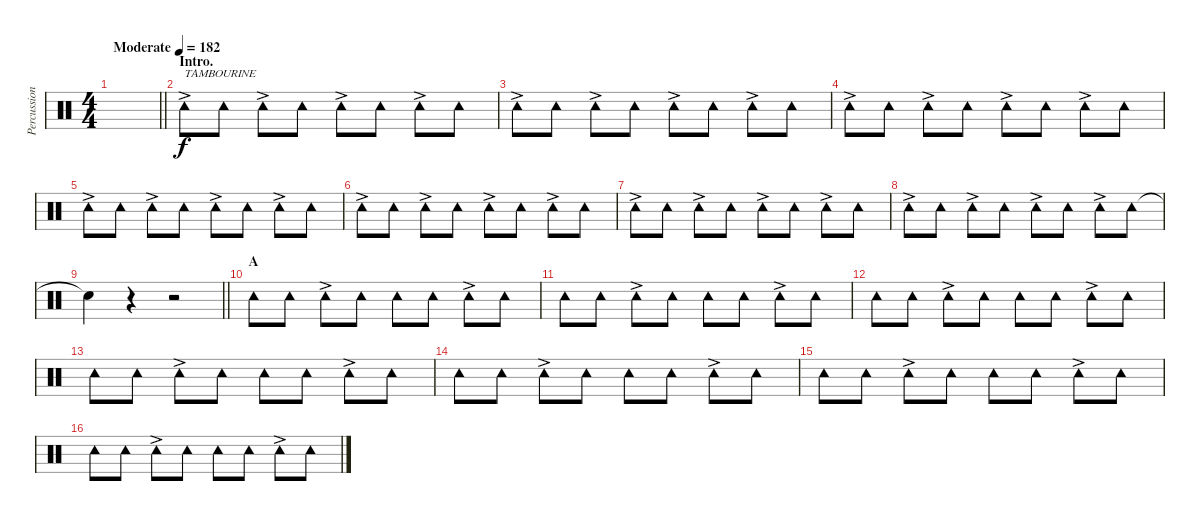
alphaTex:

\track ("Percussion (Tainaka Ritsu)" "Percussion") {instrument percussion}
\staff {score}
\articulation defaults
\ts (4 4)
\tempo (182 "Moderate")
\clef neutral
\barLineRight lightlight
\ks c
|
\section ("" "Intro.")
"Tambourine (hit)"{ac}.8{txt "TAMBOURINE"} "Tambourine (hit)".8 "Tambourine (hit)"{ac}.8 "Tambourine (hit)".8 "Tambourine (hit)"{ac}.8 "Tambourine (hit)".8 "Tambourine (hit)"{ac}.8 "Tambourine (hit)".8 |
"Tambourine (hit)"{ac}.8 "Tambourine (hit)".8 "Tambourine (hit)"{ac}.8 "Tambourine (hit)".8 "Tambourine (hit)"{ac}.8 "Tambourine (hit)".8 "Tambourine (hit)"{ac}.8 "Tambourine (hit)".8 |
"Tambourine (hit)"{ac}.8 "Tambourine (hit)".8 "Tambourine (hit)"{ac}.8 "Tambourine (hit)".8 "Tambourine (hit)"{ac}.8 "Tambourine (hit)".8 "Tambourine (hit)"{ac}.8 "Tambourine (hit)".8 |
"Tambourine (hit)"{ac}.8 "Tambourine (hit)".8 "Tambourine (hit)"{ac}.8 "Tambourine (hit)".8 "Tambourine (hit)"{ac}.8 "Tambourine (hit)".8 "Tambourine (hit)"{ac}.8 "Tambourine (hit)".8 |
"Tambourine (hit)"{ac}.8 "Tambourine (hit)".8 "Tambourine (hit)"{ac}.8 "Tambourine (hit)".8 "Tambourine (hit)"{ac}.8 "Tambourine (hit)".8 "Tambourine (hit)"{ac}.8 "Tambourine (hit)".8 |
"Tambourine (hit)"{ac}.8 "Tambourine (hit)".8 "Tambourine (hit)"{ac}.8 "Tambourine (hit)".8 "Tambourine (hit)"{ac}.8 "Tambourine (hit)".8 "Tambourine (hit)"{ac}.8 "Tambourine (hit)".8 |
"Tambourine (hit)"{ac}.8 "Tambourine (hit)".8 "Tambourine (hit)"{ac}.8 "Tambourine (hit)".8 "Tambourine (hit)"{ac}.8 "Tambourine (hit)".8 "Tambourine (hit)"{ac}.8 "Tambourine (hit)".8 |
\barLineRight lightlight "Snare (hit)"{t}.4
r.4 r.2 |
\section ("" "A")
"Tambourine (hit)".8 "Tambourine (hit)".8 "Tambourine (hit)"{ac}.8 "Tambourine (hit)".8 "Tambourine (hit)".8 "Tambourine (hit)".8 "Tambourine (hit)"{ac}.8 "Tambourine (hit)".8 |
"Tambourine (hit)".8 "Tambourine (hit)".8 "Tambourine (hit)"{ac}.8 "Tambourine (hit)".8 "Tambourine (hit)".8 "Tambourine (hit)".8 "Tambourine (hit)"{ac}.8 "Tambourine (hit)".8 |
"Tambourine (hit)".8 "Tambourine (hit)".8 "Tambourine (hit)"{ac}.8 "Tambourine (hit)".8 "Tambourine (hit)".8 "Tambourine (hit)".8 "Tambourine (hit)"{ac}.8 "Tambourine (hit)".8 |
"Tambourine (hit)".8 "Tambourine (hit)".8 "Tambourine (hit)"{ac}.8 "Tambourine (hit)".8 "Tambourine (hit)".8 "Tambourine (hit)".8 "Tambourine (hit)"{ac}.8 "Tambourine (hit)".8 |
"Tambourine (hit)".8 "Tambourine (hit)".8 "Tambourine (hit)"{ac}.8 "Tambourine (hit)".8 "Tambourine (hit)".8 "Tambourine (hit)".8 "Tambourine (hit)"{ac}.8 "Tambourine (hit)".8 |
"Tambourine (hit)".8 "Tambourine (hit)".8 "Tambourine (hit)"{ac}.8 "Tambourine (hit)".8 "Tambourine (hit)".8 "Tambourine (hit)".8 "Tambourine (hit)"{ac}.8 "Tambourine (hit)".8 |
"Tambourine (hit)".8 "Tambourine (hit)".8 "Tambourine (hit)"{ac}.8 "Tambourine (hit)".8 "Tambourine (hit)".8 "Tambourine (hit)".8 "Tambourine (hit)"{ac}.8 "Tambourine (hit)".8
